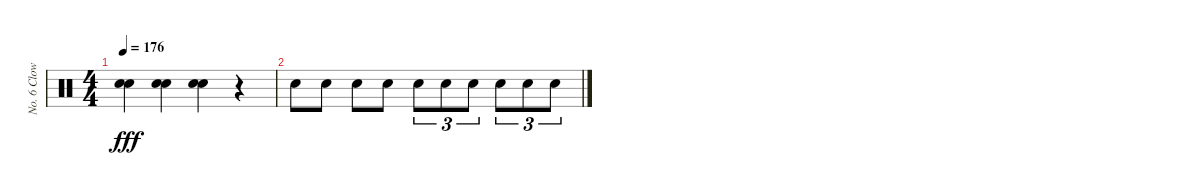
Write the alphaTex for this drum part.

\track ("No. 6 Clown" "No. 6 Clow") {instrument percussion}
\staff {score}
\articulation defaults
\ts (4 4)
\tempo 176
\clef neutral
\ks c
("Electric Snare (hit)" "Electric Snare (hit)").4{dy fff} ("Electric Snare (hit)" "Electric Snare (hit)").4 ("Electric Snare (hit)" "Electric Snare (hit)").4 r.4 |
"Electric Snare (hit)".8 "Electric Snare (hit)".8 "Electric Snare (hit)".8 "Electric Snare (hit)".8 "Electric Snare (hit)".8{tu (3 2)} "Electric Snare (hit)".8{tu (3 2)} "Electric Snare (hit)".8{tu (3 2)} "Electric Snare (hit)".8{tu (3 2)} "Electric Snare (hit)".8{tu (3 2)} "Electric Snare (hit)".8{tu (3 2)}
